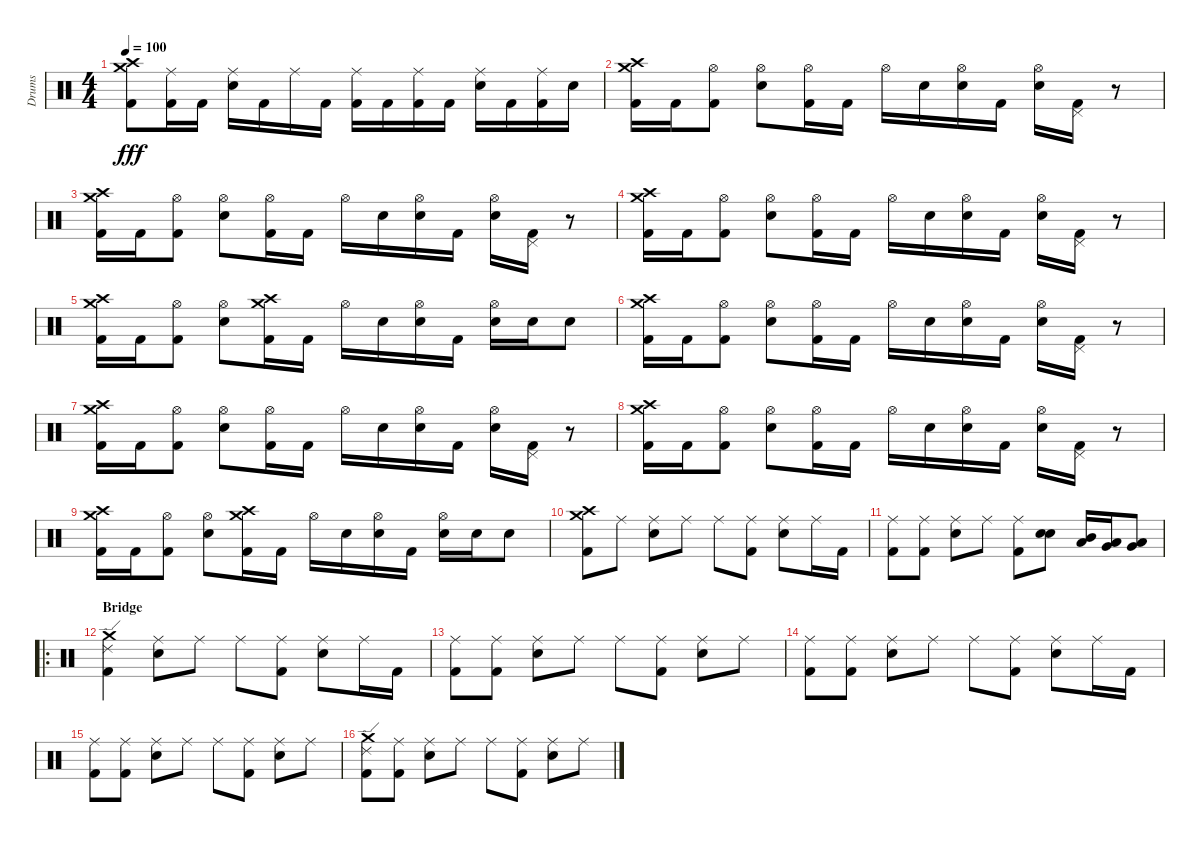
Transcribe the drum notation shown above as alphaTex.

\track ("Drums" "Drums") {instrument percussion}
\staff {score}
\articulation defaults
\ts (4 4)
\tempo 100
\clef neutral
\ks c
("Crash high (hit)" "Crash medium (hit)" "Kick (hit) 2").8{dy fff} ("Ride (middle)" "Kick (hit) 2").16 "Kick (hit) 2".16 ("Ride (middle)" "Electric Snare (hit)").16 "Kick (hit) 2".16 "Ride (middle)".16 "Kick (hit) 2".16 ("Ride (middle)" "Kick (hit) 2").16 "Kick (hit) 2".16 ("Ride (middle)" "Kick (hit) 2").16 "Kick (hit) 2".16 ("Ride (middle)" "Electric Snare (hit)").16 "Kick (hit) 2".16 ("Ride (middle)" "Kick (hit) 2").16 "Electric Snare (hit)".16 |
("Crash high (hit)" "Crash medium (hit)" "Kick (hit) 2").16 "Kick (hit) 2".16 ("Hi-Hat (open)" "Kick (hit) 2").8 ("Hi-Hat (open)" "Electric Snare (hit)").8 ("Hi-Hat (open)" "Kick (hit) 2").16 "Kick (hit) 2".16 "Hi-Hat (open)".16 "Electric Snare (hit)".16 ("Hi-Hat (open)" "Electric Snare (hit)").16 "Kick (hit) 2".16 ("Hi-Hat (open)" "Electric Snare (hit)").16 ("Pedal Hi-Hat (hit)" "Kick (hit) 2").16 r.8 |
("Crash high (hit)" "Crash medium (hit)" "Kick (hit) 2").16 "Kick (hit) 2".16 ("Hi-Hat (open)" "Kick (hit) 2").8 ("Hi-Hat (open)" "Electric Snare (hit)").8 ("Hi-Hat (open)" "Kick (hit) 2").16 "Kick (hit) 2".16 "Hi-Hat (open)".16 "Electric Snare (hit)".16 ("Hi-Hat (open)" "Electric Snare (hit)").16 "Kick (hit) 2".16 ("Hi-Hat (open)" "Electric Snare (hit)").16 ("Pedal Hi-Hat (hit)" "Kick (hit) 2").16 r.8 |
("Crash high (hit)" "Crash medium (hit)" "Kick (hit) 2").16 "Kick (hit) 2".16 ("Hi-Hat (open)" "Kick (hit) 2").8 ("Hi-Hat (open)" "Electric Snare (hit)").8 ("Hi-Hat (open)" "Kick (hit) 2").16 "Kick (hit) 2".16 "Hi-Hat (open)".16 "Electric Snare (hit)".16 ("Hi-Hat (open)" "Electric Snare (hit)").16 "Kick (hit) 2".16 ("Hi-Hat (open)" "Electric Snare (hit)").16 ("Pedal Hi-Hat (hit)" "Kick (hit) 2").16 r.8 |
("Crash high (hit)" "Crash medium (hit)" "Kick (hit) 2").16 "Kick (hit) 2".16 ("Hi-Hat (open)" "Kick (hit) 2").8 ("Hi-Hat (open)" "Electric Snare (hit)").8 ("Crash high (hit)" "Crash medium (hit)" "Kick (hit) 2").16 "Kick (hit) 2".16 "Hi-Hat (open)".16 "Electric Snare (hit)".16 ("Hi-Hat (open)" "Electric Snare (hit)").16 "Kick (hit) 2".16 ("Hi-Hat (open)" "Electric Snare (hit)").16 "Electric Snare (hit)".16 "Electric Snare (hit)".8 |
("Crash high (hit)" "Crash medium (hit)" "Kick (hit) 2").16 "Kick (hit) 2".16 ("Hi-Hat (open)" "Kick (hit) 2").8 ("Hi-Hat (open)" "Electric Snare (hit)").8 ("Hi-Hat (open)" "Kick (hit) 2").16 "Kick (hit) 2".16 "Hi-Hat (open)".16 "Electric Snare (hit)".16 ("Hi-Hat (open)" "Electric Snare (hit)").16 "Kick (hit) 2".16 ("Hi-Hat (open)" "Electric Snare (hit)").16 ("Pedal Hi-Hat (hit)" "Kick (hit) 2").16 r.8 |
("Crash high (hit)" "Crash medium (hit)" "Kick (hit) 2").16 "Kick (hit) 2".16 ("Hi-Hat (open)" "Kick (hit) 2").8 ("Hi-Hat (open)" "Electric Snare (hit)").8 ("Hi-Hat (open)" "Kick (hit) 2").16 "Kick (hit) 2".16 "Hi-Hat (open)".16 "Electric Snare (hit)".16 ("Hi-Hat (open)" "Electric Snare (hit)").16 "Kick (hit) 2".16 ("Hi-Hat (open)" "Electric Snare (hit)").16 ("Pedal Hi-Hat (hit)" "Kick (hit) 2").16 r.8 |
("Crash high (hit)" "Crash medium (hit)" "Kick (hit) 2").16 "Kick (hit) 2".16 ("Hi-Hat (open)" "Kick (hit) 2").8 ("Hi-Hat (open)" "Electric Snare (hit)").8 ("Hi-Hat (open)" "Kick (hit) 2").16 "Kick (hit) 2".16 "Hi-Hat (open)".16 "Electric Snare (hit)".16 ("Hi-Hat (open)" "Electric Snare (hit)").16 "Kick (hit) 2".16 ("Hi-Hat (open)" "Electric Snare (hit)").16 ("Pedal Hi-Hat (hit)" "Kick (hit) 2").16 r.8 |
("Crash high (hit)" "Crash medium (hit)" "Kick (hit) 2").16 "Kick (hit) 2".16 ("Hi-Hat (open)" "Kick (hit) 2").8 ("Hi-Hat (open)" "Electric Snare (hit)").8 ("Crash high (hit)" "Crash medium (hit)" "Kick (hit) 2").16 "Kick (hit) 2".16 "Hi-Hat (open)".16 "Electric Snare (hit)".16 ("Hi-Hat (open)" "Electric Snare (hit)").16 "Kick (hit) 2".16 ("Hi-Hat (open)" "Electric Snare (hit)").16 "Electric Snare (hit)".16 "Electric Snare (hit)".8 |
("Crash high (hit)" "Crash medium (hit)" "Kick (hit) 2").8 "Ride (middle)".8 ("Ride (middle)" "Electric Snare (hit)").8 "Ride (middle)".8 "Ride (middle)".8 ("Ride (middle)" "Kick (hit) 2").8 ("Ride (middle)" "Electric Snare (hit)").8 "Ride (middle)".16 "Kick (hit) 2".16 |
("Ride (middle)" "Kick (hit) 2").8 ("Ride (middle)" "Kick (hit) 2").8 ("Ride (middle)" "Electric Snare (hit)").8 "Ride (middle)".8 ("Ride (middle)" "Kick (hit) 2").8 ("Electric Snare (hit)" "Electric Snare (hit)").8 ("Mid Tom (hit)" "Low Tom (hit)").16 ("Low Tom (hit)" "Very Low Tom (hit)").16 ("Very Low Tom (hit)" "Low Floor Tom (hit)").8 |
\ro
\section ("" "Bridge")
("Crash medium (hit)" "Ride (edge) 2" "Kick (hit) 2").4 ("Ride (middle)" "Electric Snare (hit)").8 "Ride (middle)".8 "Ride (middle)".8 ("Ride (middle)" "Kick (hit) 2").8 ("Ride (middle)" "Electric Snare (hit)").8 "Ride (middle)".16 "Kick (hit) 2".16 |
("Ride (middle)" "Kick (hit) 2").8 ("Ride (middle)" "Kick (hit) 2").8 ("Ride (middle)" "Electric Snare (hit)").8 "Ride (middle)".8 "Ride (middle)".8 ("Ride (middle)" "Kick (hit) 2").8 ("Ride (middle)" "Electric Snare (hit)").8 "Ride (middle)".8 |
("Ride (middle)" "Kick (hit) 2").8 ("Ride (middle)" "Kick (hit) 2").8 ("Ride (middle)" "Electric Snare (hit)").8 "Ride (middle)".8 "Ride (middle)".8 ("Ride (middle)" "Kick (hit) 2").8 ("Ride (middle)" "Electric Snare (hit)").8 "Ride (middle)".16 "Kick (hit) 2".16 |
("Ride (middle)" "Kick (hit) 2").8 ("Ride (middle)" "Kick (hit) 2").8 ("Ride (middle)" "Electric Snare (hit)").8 "Ride (middle)".8 "Ride (middle)".8 ("Ride (middle)" "Kick (hit) 2").8 ("Ride (middle)" "Electric Snare (hit)").8 "Ride (middle)".8 |
("Crash medium (hit)" "Ride (edge) 2" "Kick (hit) 2").8 ("Ride (middle)" "Kick (hit) 2").8 ("Ride (middle)" "Electric Snare (hit)").8 "Ride (middle)".8 "Ride (middle)".8 ("Ride (middle)" "Kick (hit) 2").8 ("Ride (middle)" "Electric Snare (hit)").8 "Ride (middle)".8
